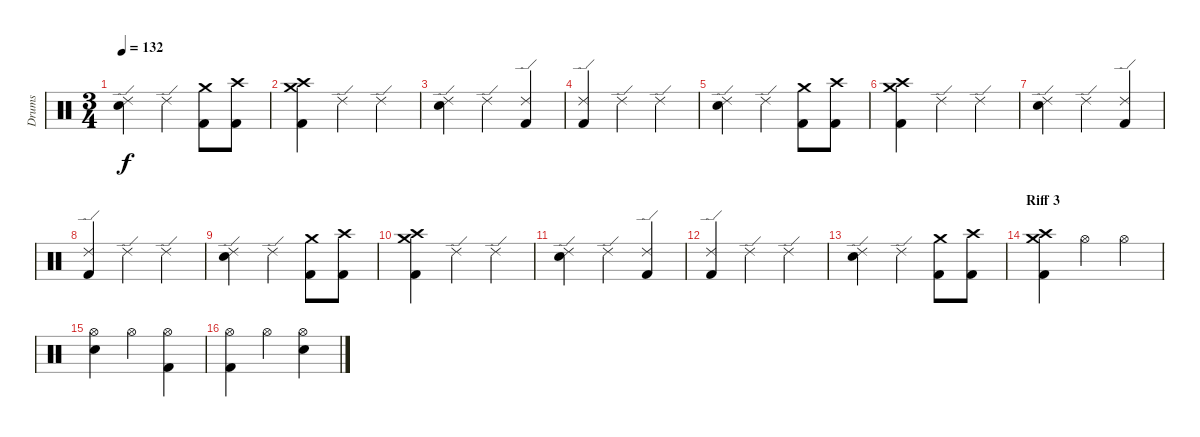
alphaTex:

\track ("Drums" "Drums") {instrument percussion}
\staff {score}
\articulation defaults
\ts (3 4)
\tempo 132
\clef neutral
\ks c
("Ride (edge) 2" "Electric Snare (hit)").4{dy f} "Ride (edge) 2".4 ("Crash medium (hit)" "Kick (hit) 2").8 ("Crash high (hit)" "Kick (hit) 2").8 |
("Crash high (hit)" "Crash medium (hit)" "Kick (hit) 2").4 "Ride (edge) 2".4 "Ride (edge) 2".4 |
("Ride (edge) 2" "Electric Snare (hit)").4 "Ride (edge) 2".4 ("Ride (edge) 2" "Kick (hit) 2").4 |
("Ride (edge) 2" "Kick (hit) 2").4 "Ride (edge) 2".4 "Ride (edge) 2".4 |
("Ride (edge) 2" "Electric Snare (hit)").4 "Ride (edge) 2".4 ("Crash medium (hit)" "Kick (hit) 2").8 ("Crash high (hit)" "Kick (hit) 2").8 |
("Crash high (hit)" "Crash medium (hit)" "Kick (hit) 2").4 "Ride (edge) 2".4 "Ride (edge) 2".4 |
("Ride (edge) 2" "Electric Snare (hit)").4 "Ride (edge) 2".4 ("Ride (edge) 2" "Kick (hit) 2").4 |
("Ride (edge) 2" "Kick (hit) 2").4 "Ride (edge) 2".4 "Ride (edge) 2".4 |
("Ride (edge) 2" "Electric Snare (hit)").4 "Ride (edge) 2".4 ("Crash medium (hit)" "Kick (hit) 2").8 ("Crash high (hit)" "Kick (hit) 2").8 |
("Crash high (hit)" "Crash medium (hit)" "Kick (hit) 2").4 "Ride (edge) 2".4 "Ride (edge) 2".4 |
("Ride (edge) 2" "Electric Snare (hit)").4 "Ride (edge) 2".4 ("Ride (edge) 2" "Kick (hit) 2").4 |
("Ride (edge) 2" "Kick (hit) 2").4 "Ride (edge) 2".4 "Ride (edge) 2".4 |
("Ride (edge) 2" "Electric Snare (hit)").4 "Ride (edge) 2".4 ("Crash medium (hit)" "Kick (hit) 2").8 ("Crash high (hit)" "Kick (hit) 2").8 |
\section ("" "Riff 3")
("Crash high (hit)" "Crash medium (hit)" "Kick (hit) 2").4 "Hi-Hat (open)".4 "Hi-Hat (open)".4 |
("Hi-Hat (open)" "Electric Snare (hit)").4 "Hi-Hat (open)".4 ("Hi-Hat (open)" "Kick (hit) 2").4 |
("Hi-Hat (open)" "Kick (hit) 2").4 "Hi-Hat (open)".4 ("Hi-Hat (open)" "Electric Snare (hit)").4
